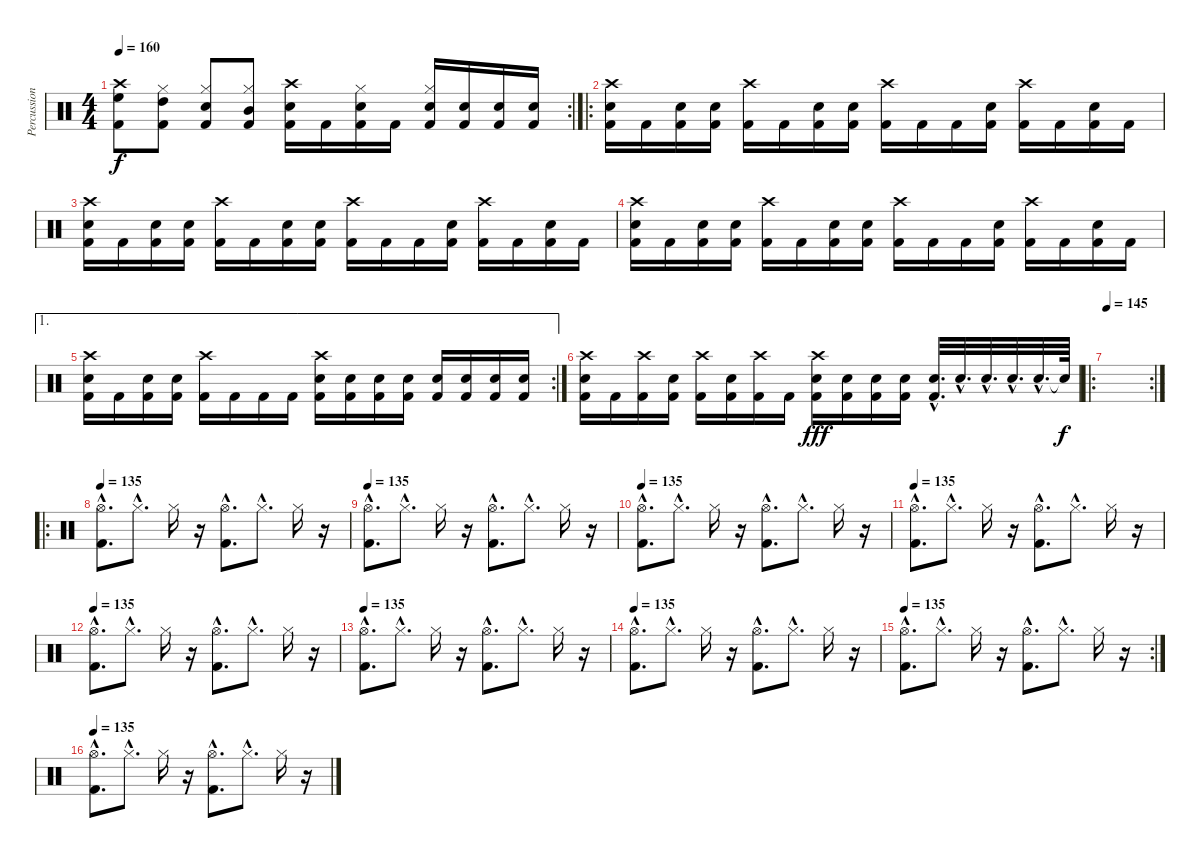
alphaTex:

\track ("Percussion" "Percussion") {instrument percussion}
\staff {score}
\articulation defaults
\rc 2
\ts (4 4)
\tempo 160
\clef neutral
\ks c
("Crash high (hit)" "High Floor Tom (hit)" "Kick (hit) 2").8{dy f} ("Hi-Hat (closed)" "High Tom (hit)" "Kick (hit) 2").8 ("Hi-Hat (closed)" "Electric Snare (hit)" "Kick (hit) 2").8 ("Hi-Hat (closed)" "Mid Tom (hit)" "Kick (hit) 2").8 ("Crash high (hit)" "Electric Snare (hit)" "Kick (hit) 2").16 "Kick (hit) 2".16 ("Hi-Hat (closed)" "Electric Snare (hit)" "Kick (hit) 2").16 "Kick (hit) 2".16 ("Hi-Hat (closed)" "Electric Snare (hit)" "Kick (hit) 2").16 ("Electric Snare (hit)" "Kick (hit) 2").16 ("Electric Snare (hit)" "Kick (hit) 2").16 ("Electric Snare (hit)" "Kick (hit) 2").16 |
\ro
("Crash high (hit)" "Electric Snare (hit)" "Kick (hit) 2").16 "Kick (hit) 2".16 ("Electric Snare (hit)" "Kick (hit) 2").16 ("Electric Snare (hit)" "Kick (hit) 2").16 ("Crash high (hit)" "Kick (hit) 2").16 "Kick (hit) 2".16 ("Electric Snare (hit)" "Kick (hit) 2").16 ("Electric Snare (hit)" "Kick (hit) 2").16 ("Crash high (hit)" "Kick (hit) 2").16 "Kick (hit) 2".16 "Kick (hit) 2".16 ("Electric Snare (hit)" "Kick (hit) 2").16 ("Crash high (hit)" "Kick (hit) 2").16 "Kick (hit) 2".16 ("Electric Snare (hit)" "Kick (hit) 2").16 "Kick (hit) 2".16 |
("Crash high (hit)" "Electric Snare (hit)" "Kick (hit) 2").16 "Kick (hit) 2".16 ("Electric Snare (hit)" "Kick (hit) 2").16 ("Electric Snare (hit)" "Kick (hit) 2").16 ("Crash high (hit)" "Kick (hit) 2").16 "Kick (hit) 2".16 ("Electric Snare (hit)" "Kick (hit) 2").16 ("Electric Snare (hit)" "Kick (hit) 2").16 ("Crash high (hit)" "Kick (hit) 2").16 "Kick (hit) 2".16 "Kick (hit) 2".16 ("Electric Snare (hit)" "Kick (hit) 2").16 ("Crash high (hit)" "Kick (hit) 2").16 "Kick (hit) 2".16 ("Electric Snare (hit)" "Kick (hit) 2").16 "Kick (hit) 2".16 |
("Crash high (hit)" "Electric Snare (hit)" "Kick (hit) 2").16 "Kick (hit) 2".16 ("Electric Snare (hit)" "Kick (hit) 2").16 ("Electric Snare (hit)" "Kick (hit) 2").16 ("Crash high (hit)" "Kick (hit) 2").16 "Kick (hit) 2".16 ("Electric Snare (hit)" "Kick (hit) 2").16 ("Electric Snare (hit)" "Kick (hit) 2").16 ("Crash high (hit)" "Kick (hit) 2").16 "Kick (hit) 2".16 "Kick (hit) 2".16 ("Electric Snare (hit)" "Kick (hit) 2").16 ("Crash high (hit)" "Kick (hit) 2").16 "Kick (hit) 2".16 ("Electric Snare (hit)" "Kick (hit) 2").16 "Kick (hit) 2".16 |
\ae 1
\rc 2
("Crash high (hit)" "Electric Snare (hit)" "Kick (hit) 2").16 "Kick (hit) 2".16 ("Electric Snare (hit)" "Kick (hit) 2").16 ("Electric Snare (hit)" "Kick (hit) 2").16 ("Crash high (hit)" "Kick (hit) 2").16 "Kick (hit) 2".16 "Kick (hit) 2".16 "Kick (hit) 2".16 ("Crash high (hit)" "Electric Snare (hit)" "Kick (hit) 2").16 ("Electric Snare (hit)" "Kick (hit) 2").16 ("Electric Snare (hit)" "Kick (hit) 2").16 ("Electric Snare (hit)" "Kick (hit) 2").16 ("Electric Snare (hit)" "Kick (hit) 2").16 ("Electric Snare (hit)" "Kick (hit) 2").16 ("Electric Snare (hit)" "Kick (hit) 2").16 ("Electric Snare (hit)" "Kick (hit) 2").16 |
("Crash high (hit)" "Electric Snare (hit)" "Kick (hit) 2").16 "Kick (hit) 2".16 ("Crash high (hit)" "Kick (hit) 2").16 ("Electric Snare (hit)" "Kick (hit) 2").16 ("Crash high (hit)" "Kick (hit) 2").16 ("Electric Snare (hit)" "Kick (hit) 2").16 ("Crash high (hit)" "Kick (hit) 2").16 "Kick (hit) 2".16 ("Crash high (hit)" "Electric Snare (hit)" "Kick (hit) 2").16{dy fff} ("Electric Snare (hit)" "Kick (hit) 2").16 ("Electric Snare (hit)" "Kick (hit) 2").16 ("Electric Snare (hit)" "Kick (hit) 2").16 ("Electric Snare (hit)"{hac} "Kick (hit) 2"{hac}).32{d} "Electric Snare (hit)"{hac}.32{d} "Electric Snare (hit)"{hac}.32{d} "Electric Snare (hit)"{hac}.32{d} "Electric Snare (hit)"{hac}.32{d} "Snare (hit)"{t}.64{dy f} |
\ro
\rc 2
\tempo 145
|
\ro
\tempo 135
("Hi-Hat (open)"{hac} "Kick (hit) 2"{hac}).8{d} "Hi-Hat (closed)"{hac}.8{d} "Hi-Hat (closed)".16 r.16 ("Hi-Hat (open)"{hac} "Kick (hit) 2"{hac}).8{d} "Hi-Hat (closed)"{hac}.8{d} "Hi-Hat (closed)".16 r.16 |
\tempo 135
("Hi-Hat (open)"{hac} "Kick (hit) 2"{hac}).8{d} "Hi-Hat (closed)"{hac}.8{d} "Hi-Hat (closed)".16 r.16 ("Hi-Hat (open)"{hac} "Kick (hit) 2"{hac}).8{d} "Hi-Hat (closed)"{hac}.8{d} "Hi-Hat (closed)".16 r.16 |
\tempo 135
("Hi-Hat (open)"{hac} "Kick (hit) 2"{hac}).8{d} "Hi-Hat (closed)"{hac}.8{d} "Hi-Hat (closed)".16 r.16 ("Hi-Hat (open)"{hac} "Kick (hit) 2"{hac}).8{d} "Hi-Hat (closed)"{hac}.8{d} "Hi-Hat (closed)".16 r.16 |
\tempo 135
("Hi-Hat (open)"{hac} "Kick (hit) 2"{hac}).8{d} "Hi-Hat (closed)"{hac}.8{d} "Hi-Hat (closed)".16 r.16 ("Hi-Hat (open)"{hac} "Kick (hit) 2"{hac}).8{d} "Hi-Hat (closed)"{hac}.8{d} "Hi-Hat (closed)".16 r.16 |
\tempo 135
("Hi-Hat (open)"{hac} "Kick (hit) 2"{hac}).8{d} "Hi-Hat (closed)"{hac}.8{d} "Hi-Hat (closed)".16 r.16 ("Hi-Hat (open)"{hac} "Kick (hit) 2"{hac}).8{d} "Hi-Hat (closed)"{hac}.8{d} "Hi-Hat (closed)".16 r.16 |
\tempo 135
("Hi-Hat (open)"{hac} "Kick (hit) 2"{hac}).8{d} "Hi-Hat (closed)"{hac}.8{d} "Hi-Hat (closed)".16 r.16 ("Hi-Hat (open)"{hac} "Kick (hit) 2"{hac}).8{d} "Hi-Hat (closed)"{hac}.8{d} "Hi-Hat (closed)".16 r.16 |
\tempo 135
("Hi-Hat (open)"{hac} "Kick (hit) 2"{hac}).8{d} "Hi-Hat (closed)"{hac}.8{d} "Hi-Hat (closed)".16 r.16 ("Hi-Hat (open)"{hac} "Kick (hit) 2"{hac}).8{d} "Hi-Hat (closed)"{hac}.8{d} "Hi-Hat (closed)".16 r.16 |
\rc 2
\tempo 135
("Hi-Hat (open)"{hac} "Kick (hit) 2"{hac}).8{d} "Hi-Hat (closed)"{hac}.8{d} "Hi-Hat (closed)".16 r.16 ("Hi-Hat (open)"{hac} "Kick (hit) 2"{hac}).8{d} "Hi-Hat (closed)"{hac}.8{d} "Hi-Hat (closed)".16 r.16 |
\tempo 135
("Hi-Hat (open)"{hac} "Kick (hit) 2"{hac}).8{d} "Hi-Hat (closed)"{hac}.8{d} "Hi-Hat (closed)".16 r.16 ("Hi-Hat (open)"{hac} "Kick (hit) 2"{hac}).8{d} "Hi-Hat (closed)"{hac}.8{d} "Hi-Hat (closed)".16 r.16
